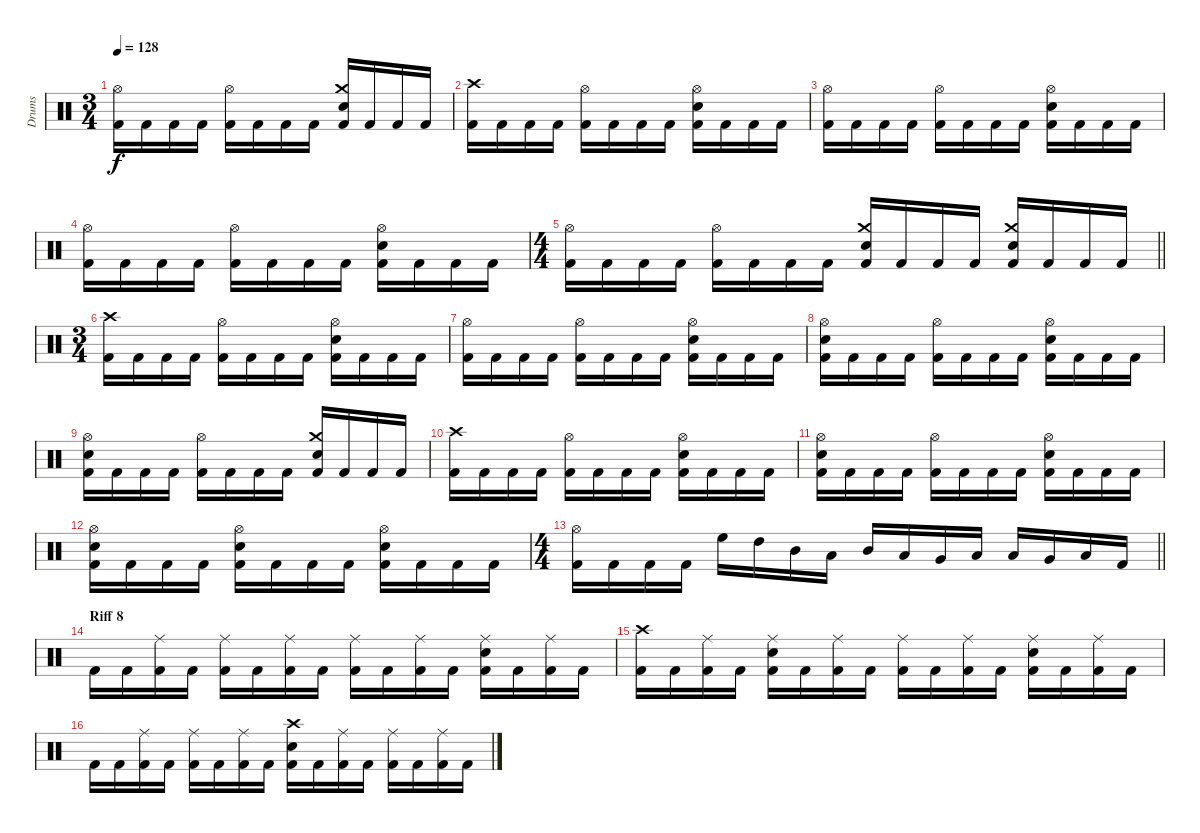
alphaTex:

\track ("Drums" "Drums") {instrument percussion}
\staff {score}
\articulation defaults
\ts (3 4)
\tempo 128
\clef neutral
\ks c
("Hi-Hat (open)" "Kick (hit) 2").16{dy f} "Kick (hit) 2".16 "Kick (hit) 2".16 "Kick (hit) 2".16 ("Hi-Hat (open)" "Kick (hit) 2").16 "Kick (hit) 2".16 "Kick (hit) 2".16 "Kick (hit) 2".16 ("Crash medium (hit)" "Electric Snare (hit)" "Kick (hit) 2").16 "Kick (hit) 2".16 "Kick (hit) 2".16 "Kick (hit) 2".16 |
("Crash high (hit)" "Kick (hit) 2").16 "Kick (hit) 2".16 "Kick (hit) 2".16 "Kick (hit) 2".16 ("Hi-Hat (open)" "Kick (hit) 2").16 "Kick (hit) 2".16 "Kick (hit) 2".16 "Kick (hit) 2".16 ("Hi-Hat (open)" "Electric Snare (hit)" "Kick (hit) 2").16 "Kick (hit) 2".16 "Kick (hit) 2".16 "Kick (hit) 2".16 |
("Hi-Hat (open)" "Kick (hit) 2").16 "Kick (hit) 2".16 "Kick (hit) 2".16 "Kick (hit) 2".16 ("Hi-Hat (open)" "Kick (hit) 2").16 "Kick (hit) 2".16 "Kick (hit) 2".16 "Kick (hit) 2".16 ("Hi-Hat (open)" "Electric Snare (hit)" "Kick (hit) 2").16 "Kick (hit) 2".16 "Kick (hit) 2".16 "Kick (hit) 2".16 |
("Hi-Hat (open)" "Kick (hit) 2").16 "Kick (hit) 2".16 "Kick (hit) 2".16 "Kick (hit) 2".16 ("Hi-Hat (open)" "Kick (hit) 2").16 "Kick (hit) 2".16 "Kick (hit) 2".16 "Kick (hit) 2".16 ("Hi-Hat (open)" "Electric Snare (hit)" "Kick (hit) 2").16 "Kick (hit) 2".16 "Kick (hit) 2".16 "Kick (hit) 2".16 |
\ts (4 4)
\barLineRight lightlight
("Hi-Hat (open)" "Kick (hit) 2").16 "Kick (hit) 2".16 "Kick (hit) 2".16 "Kick (hit) 2".16 ("Hi-Hat (open)" "Kick (hit) 2").16 "Kick (hit) 2".16 "Kick (hit) 2".16 "Kick (hit) 2".16 ("Crash medium (hit)" "Electric Snare (hit)" "Kick (hit) 2").16 "Kick (hit) 2".16 "Kick (hit) 2".16 "Kick (hit) 2".16 ("Crash medium (hit)" "Electric Snare (hit)" "Kick (hit) 2").16 "Kick (hit) 2".16 "Kick (hit) 2".16 "Kick (hit) 2".16 |
\ts (3 4)
("Crash high (hit)" "Kick (hit) 2").16 "Kick (hit) 2".16 "Kick (hit) 2".16 "Kick (hit) 2".16 ("Hi-Hat (open)" "Kick (hit) 2").16 "Kick (hit) 2".16 "Kick (hit) 2".16 "Kick (hit) 2".16 ("Hi-Hat (open)" "Electric Snare (hit)" "Kick (hit) 2").16 "Kick (hit) 2".16 "Kick (hit) 2".16 "Kick (hit) 2".16 |
("Hi-Hat (open)" "Kick (hit) 2").16 "Kick (hit) 2".16 "Kick (hit) 2".16 "Kick (hit) 2".16 ("Hi-Hat (open)" "Kick (hit) 2").16 "Kick (hit) 2".16 "Kick (hit) 2".16 "Kick (hit) 2".16 ("Hi-Hat (open)" "Electric Snare (hit)" "Kick (hit) 2").16 "Kick (hit) 2".16 "Kick (hit) 2".16 "Kick (hit) 2".16 |
("Hi-Hat (open)" "Electric Snare (hit)" "Kick (hit) 2").16 "Kick (hit) 2".16 "Kick (hit) 2".16 "Kick (hit) 2".16 ("Hi-Hat (open)" "Kick (hit) 2").16 "Kick (hit) 2".16 "Kick (hit) 2".16 "Kick (hit) 2".16 ("Hi-Hat (open)" "Electric Snare (hit)" "Kick (hit) 2").16 "Kick (hit) 2".16 "Kick (hit) 2".16 "Kick (hit) 2".16 |
("Hi-Hat (open)" "Electric Snare (hit)" "Kick (hit) 2").16 "Kick (hit) 2".16 "Kick (hit) 2".16 "Kick (hit) 2".16 ("Hi-Hat (open)" "Kick (hit) 2").16 "Kick (hit) 2".16 "Kick (hit) 2".16 "Kick (hit) 2".16 ("Crash medium (hit)" "Electric Snare (hit)" "Kick (hit) 2").16 "Kick (hit) 2".16 "Kick (hit) 2".16 "Kick (hit) 2".16 |
("Crash high (hit)" "Kick (hit) 2").16 "Kick (hit) 2".16 "Kick (hit) 2".16 "Kick (hit) 2".16 ("Hi-Hat (open)" "Kick (hit) 2").16 "Kick (hit) 2".16 "Kick (hit) 2".16 "Kick (hit) 2".16 ("Hi-Hat (open)" "Electric Snare (hit)" "Kick (hit) 2").16 "Kick (hit) 2".16 "Kick (hit) 2".16 "Kick (hit) 2".16 |
("Hi-Hat (open)" "Electric Snare (hit)" "Kick (hit) 2").16 "Kick (hit) 2".16 "Kick (hit) 2".16 "Kick (hit) 2".16 ("Hi-Hat (open)" "Kick (hit) 2").16 "Kick (hit) 2".16 "Kick (hit) 2".16 "Kick (hit) 2".16 ("Hi-Hat (open)" "Electric Snare (hit)" "Kick (hit) 2").16 "Kick (hit) 2".16 "Kick (hit) 2".16 "Kick (hit) 2".16 |
("Hi-Hat (open)" "Electric Snare (hit)" "Kick (hit) 2").16 "Kick (hit) 2".16 "Kick (hit) 2".16 "Kick (hit) 2".16 ("Hi-Hat (open)" "Electric Snare (hit)" "Kick (hit) 2").16 "Kick (hit) 2".16 "Kick (hit) 2".16 "Kick (hit) 2".16 ("Hi-Hat (open)" "Electric Snare (hit)" "Kick (hit) 2").16 "Kick (hit) 2".16 "Kick (hit) 2".16 "Kick (hit) 2".16 |
\ts (4 4)
\barLineRight lightlight
("Hi-Hat (open)" "Kick (hit) 2").16 "Kick (hit) 2".16 "Kick (hit) 2".16 "Kick (hit) 2".16 "High Floor Tom (hit)".16 "High Tom (hit)".16 "Mid Tom (hit)".16 "Low Tom (hit)".16 "Mid Tom (hit)".16 "Low Tom (hit)".16 "Very Low Tom (hit)".16 "Low Floor Tom (hit)".16 "Low Tom (hit)".16 "Very Low Tom (hit)".16 "Low Floor Tom (hit)".16 "Kick (hit) 2".16 |
\section ("" "Riff 8")
"Kick (hit) 2".16 "Kick (hit) 2".16 ("Ride (middle)" "Kick (hit) 2").16 "Kick (hit) 2".16 ("Ride (middle)" "Kick (hit) 2").16 "Kick (hit) 2".16 ("Ride (middle)" "Kick (hit) 2").16 "Kick (hit) 2".16 ("Ride (middle)" "Kick (hit) 2").16 "Kick (hit) 2".16 ("Ride (middle)" "Kick (hit) 2").16 "Kick (hit) 2".16 ("Ride (middle)" "Electric Snare (hit)" "Kick (hit) 2").16 "Kick (hit) 2".16 ("Ride (middle)" "Kick (hit) 2").16 "Kick (hit) 2".16 |
("Crash high (hit)" "Kick (hit) 2").16 "Kick (hit) 2".16 ("Ride (middle)" "Kick (hit) 2").16 "Kick (hit) 2".16 ("Ride (middle)" "Electric Snare (hit)" "Kick (hit) 2").16 "Kick (hit) 2".16 ("Ride (middle)" "Kick (hit) 2").16 "Kick (hit) 2".16 ("Ride (middle)" "Kick (hit) 2").16 "Kick (hit) 2".16 ("Ride (middle)" "Kick (hit) 2").16 "Kick (hit) 2".16 ("Ride (middle)" "Electric Snare (hit)" "Kick (hit) 2").16 "Kick (hit) 2".16 ("Ride (middle)" "Kick (hit) 2").16 "Kick (hit) 2".16 |
"Kick (hit) 2".16 "Kick (hit) 2".16 ("Ride (middle)" "Kick (hit) 2").16 "Kick (hit) 2".16 ("Ride (middle)" "Kick (hit) 2").16 "Kick (hit) 2".16 ("Ride (middle)" "Kick (hit) 2").16 "Kick (hit) 2".16 ("Crash high (hit)" "Electric Snare (hit)" "Kick (hit) 2").16 "Kick (hit) 2".16 ("Ride (middle)" "Kick (hit) 2").16 "Kick (hit) 2".16 ("Ride (middle)" "Kick (hit) 2").16 "Kick (hit) 2".16 ("Ride (middle)" "Kick (hit) 2").16 "Kick (hit) 2".16
